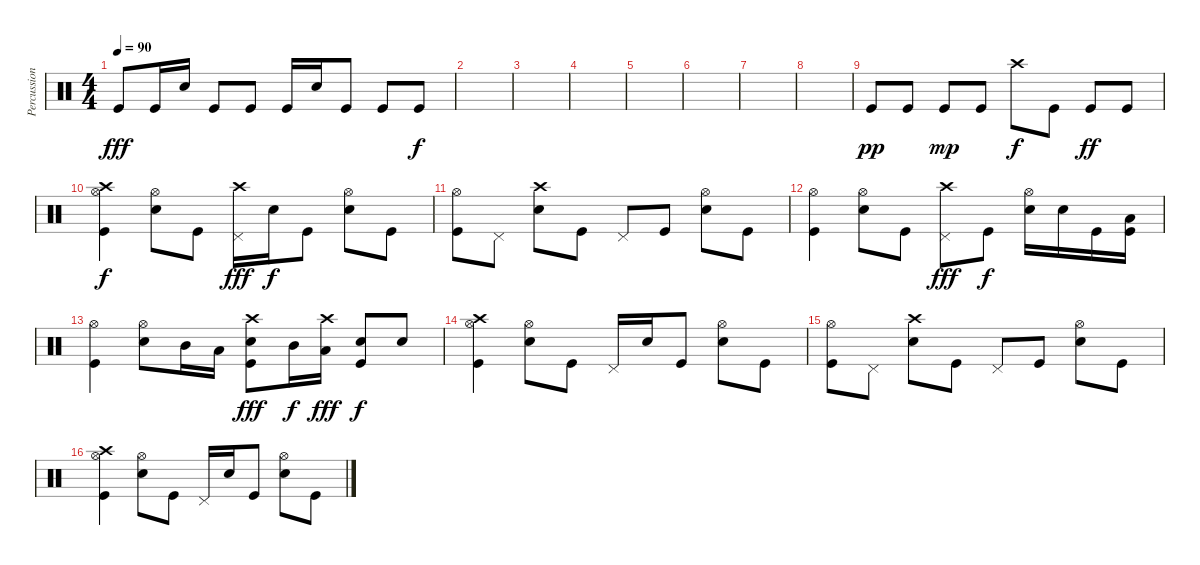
\track ("Percussion" "Percussion") {instrument percussion}
\staff {score}
\articulation defaults
\ts (4 4)
\tempo 90
\clef neutral
\ks c "Kick (hit)".8{dy fff} "Kick (hit)".16 "Snare (hit) 2".16 "Kick (hit)".8 "Kick (hit)".8 "Kick (hit)".16 "Snare (hit) 2".16 "Kick (hit)".8 "Kick (hit)".8 "Kick (hit)".8{dy f}
|
|
|
|
|
|
|
|
"Kick (hit)".8{dy pp} "Kick (hit)".8 "Kick (hit)".8{dy mp} "Kick (hit)".8 "Crash high (hit)".8{dy f} "Kick (hit)".8 "Kick (hit)".8{dy ff} "Kick (hit)".8 |
("Kick (hit)" "Hi-Hat (open)" "Crash high (hit)").4{dy f} ("Snare (hit) 2" "Hi-Hat (open)").8 "Kick (hit)".8 ("Pedal Hi-Hat (hit)" "Crash high (hit)").16{dy fff} "Snare (hit) 2".16{dy f} "Kick (hit)".8 ("Snare (hit) 2" "Hi-Hat (open)").8 "Kick (hit)".8 |
("Kick (hit)" "Hi-Hat (open)").8 "Pedal Hi-Hat (hit)".8 ("Snare (hit) 2" "Crash high (hit)").8 "Kick (hit)".8 "Pedal Hi-Hat (hit)".8 "Kick (hit)".8 ("Snare (hit) 2" "Hi-Hat (open)").8 "Kick (hit)".8 |
("Kick (hit)" "Hi-Hat (open)").4 ("Snare (hit) 2" "Hi-Hat (open)").8 "Kick (hit)".8 ("Crash high (hit)" "Pedal Hi-Hat (hit)").8{dy fff} "Kick (hit)".8{dy f} ("Snare (hit) 2" "Hi-Hat (open)").16 "Snare (hit) 2".16 "Kick (hit)".16 ("Kick (hit)" "Low Tom (hit)").16 |
("Kick (hit)" "Hi-Hat (open)").4 ("Snare (hit) 2" "Hi-Hat (open)").8 "Mid Tom (hit)".16 "Low Tom (hit)".16 ("Kick (hit)" "Snare (hit) 2" "Crash high (hit)").8{dy fff} "Mid Tom (hit)".16{dy f} ("Crash high (hit)" "Low Tom (hit)").16{dy fff} ("Kick (hit)" "Snare (hit) 2").8{dy f} "Snare (hit) 2".8 |
("Kick (hit)" "Hi-Hat (open)" "Crash high (hit)").4 ("Snare (hit) 2" "Hi-Hat (open)").8 "Kick (hit)".8 "Pedal Hi-Hat (hit)".16 "Snare (hit) 2".16 "Kick (hit)".8 ("Snare (hit) 2" "Hi-Hat (open)").8 "Kick (hit)".8 |
("Kick (hit)" "Hi-Hat (open)").8 "Pedal Hi-Hat (hit)".8 ("Snare (hit) 2" "Crash high (hit)").8 "Kick (hit)".8 "Pedal Hi-Hat (hit)".8 "Kick (hit)".8 ("Snare (hit) 2" "Hi-Hat (open)").8 "Kick (hit)".8 |
("Kick (hit)" "Hi-Hat (open)" "Crash high (hit)").4 ("Snare (hit) 2" "Hi-Hat (open)").8 "Kick (hit)".8 "Pedal Hi-Hat (hit)".16 "Snare (hit) 2".16 "Kick (hit)".8 ("Snare (hit) 2" "Hi-Hat (open)").8 "Kick (hit)".8
